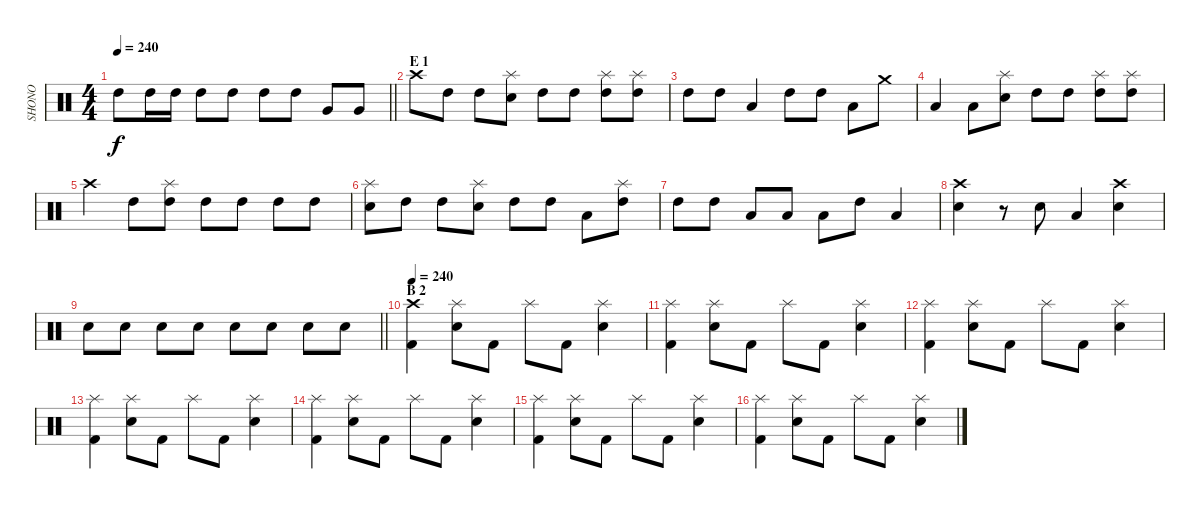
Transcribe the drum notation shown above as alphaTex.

\track ("SHONO" "SHONO") {instrument percussion}
\staff {score}
\articulation defaults
\ts (4 4)
\tempo 240
\clef neutral
\barLineRight lightlight
\ks c "High Tom (hit)".8{dy f} "High Tom (hit)".16 "High Tom (hit)".16 "High Tom (hit)".8 "High Tom (hit)".8 "High Tom (hit)".8 "High Tom (hit)".8 "Very Low Tom (hit)".8 "Very Low Tom (hit)".8
|
\section ("" "E 1")
"Crash high (hit)".8 "High Tom (hit)".8 "High Tom (hit)".8 ("Splash (hit)" "Snare (hit) 2").8 "High Tom (hit)".8 "High Tom (hit)".8 ("Splash (hit)" "High Tom (hit)").8 ("Splash (hit)" "High Tom (hit)").8 |
"High Tom (hit)".8 "High Tom (hit)".8 "Low Tom (hit)".4 "High Tom (hit)".8 "High Tom (hit)".8 "Low Floor Tom (hit)".8 "Crash medium (hit)".8 |
"Low Floor Tom (hit)".4 "Low Floor Tom (hit)".8 ("Splash (hit)" "Snare (hit) 2").8 "High Tom (hit)".8 "High Tom (hit)".8 ("Splash (hit)" "High Tom (hit)").8 ("Splash (hit)" "High Tom (hit)").8 |
"Crash high (hit)".4 "High Tom (hit)".8 ("Splash (hit)" "High Tom (hit)").8 "High Tom (hit)".8 "High Tom (hit)".8 "High Tom (hit)".8 "High Tom (hit)".8 |
("Splash (hit)" "Snare (hit) 2").8 "High Tom (hit)".8 "High Tom (hit)".8 ("Splash (hit)" "Snare (hit) 2").8 "High Tom (hit)".8 "High Tom (hit)".8 "Low Floor Tom (hit)".8 ("Splash (hit)" "High Tom (hit)").8 |
"High Tom (hit)".8 "High Tom (hit)".8 "Low Tom (hit)".8 "Low Tom (hit)".8 "Low Tom (hit)".8 "High Tom (hit)".8 "Low Tom (hit)".4 |
("Crash high (hit)" "Snare (hit) 2").4 r.8 "Snare (hit) 2".8 "Low Tom (hit)".4 ("Crash high (hit)" "Snare (hit) 2").4 |
\barLineRight lightlight "Snare (hit) 2".8 "Snare (hit) 2".8 "Snare (hit) 2".8 "Snare (hit) 2".8 "Snare (hit) 2".8 "Snare (hit) 2".8 "Snare (hit) 2".8 "Snare (hit) 2".8
|
\section ("" "B 2")
\tempo 240
("Crash high (hit)" "Kick (hit) 2").4 ("Splash (hit)" "Snare (hit) 2").8 "Kick (hit) 2".8 "Splash (hit)".8 "Kick (hit) 2".8 ("Splash (hit)" "Snare (hit) 2").4 |
("Splash (hit)" "Kick (hit) 2").4 ("Splash (hit)" "Snare (hit) 2").8 "Kick (hit) 2".8 "Splash (hit)".8 "Kick (hit) 2".8 ("Splash (hit)" "Snare (hit) 2").4 |
("Splash (hit)" "Kick (hit) 2").4 ("Splash (hit)" "Snare (hit) 2").8 "Kick (hit) 2".8 "Splash (hit)".8 "Kick (hit) 2".8 ("Splash (hit)" "Snare (hit) 2").4 |
("Splash (hit)" "Kick (hit) 2").4 ("Splash (hit)" "Snare (hit) 2").8 "Kick (hit) 2".8 "Splash (hit)".8 "Kick (hit) 2".8 ("Splash (hit)" "Snare (hit) 2").4 |
("Splash (hit)" "Kick (hit) 2").4 ("Splash (hit)" "Snare (hit) 2").8 "Kick (hit) 2".8 "Splash (hit)".8 "Kick (hit) 2".8 ("Splash (hit)" "Snare (hit) 2").4 |
("Splash (hit)" "Kick (hit) 2").4 ("Splash (hit)" "Snare (hit) 2").8 "Kick (hit) 2".8 "Splash (hit)".8 "Kick (hit) 2".8 ("Splash (hit)" "Snare (hit) 2").4 |
("Splash (hit)" "Kick (hit) 2").4 ("Splash (hit)" "Snare (hit) 2").8 "Kick (hit) 2".8 "Splash (hit)".8 "Kick (hit) 2".8 ("Splash (hit)" "Snare (hit) 2").4
